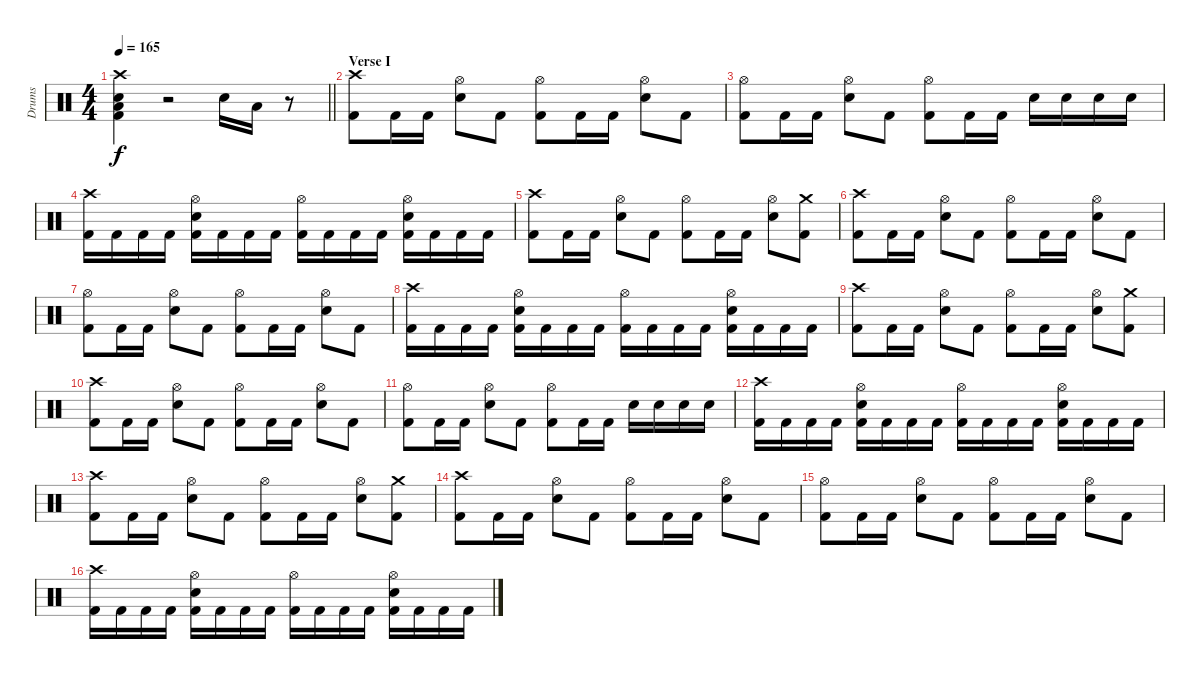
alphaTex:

\track ("Drums" "Drums") {instrument percussion}
\staff {score}
\articulation defaults
\ts (4 4)
\tempo 165
\clef neutral
\barLineRight lightlight
\ks c
("Crash high (hit)" "Snare (hit) 2" "Low Floor Tom (hit)" "Kick (hit) 2").4{dy f} r.2 "Snare (hit) 2".16 "Low Tom (hit)".16 r.8 |
\section ("" "Verse I")
("Crash high (hit)" "Kick (hit) 2").8 "Kick (hit) 2".16 "Kick (hit) 2".16 ("Hi-Hat (open)" "Snare (hit) 2").8 "Kick (hit) 2".8 ("Hi-Hat (open)" "Kick (hit) 2").8 "Kick (hit) 2".16 "Kick (hit) 2".16 ("Hi-Hat (open)" "Snare (hit) 2").8 "Kick (hit) 2".8 |
("Hi-Hat (open)" "Kick (hit) 2").8 "Kick (hit) 2".16 "Kick (hit) 2".16 ("Hi-Hat (open)" "Snare (hit) 2").8 "Kick (hit) 2".8 ("Hi-Hat (open)" "Kick (hit) 2").8 "Kick (hit) 2".16 "Kick (hit) 2".16 "Snare (hit) 2".16 "Snare (hit) 2".16 "Snare (hit) 2".16 "Snare (hit) 2".16 |
("Crash high (hit)" "Kick (hit) 2").16 "Kick (hit) 2".16 "Kick (hit) 2".16 "Kick (hit) 2".16 ("Hi-Hat (open)" "Snare (hit) 2" "Kick (hit) 2").16 "Kick (hit) 2".16 "Kick (hit) 2".16 "Kick (hit) 2".16 ("Hi-Hat (open)" "Kick (hit) 2").16 "Kick (hit) 2".16 "Kick (hit) 2".16 "Kick (hit) 2".16 ("Hi-Hat (open)" "Snare (hit) 2" "Kick (hit) 2").16 "Kick (hit) 2".16 "Kick (hit) 2".16 "Kick (hit) 2".16 |
("Crash high (hit)" "Kick (hit) 2").8 "Kick (hit) 2".16 "Kick (hit) 2".16 ("Hi-Hat (open)" "Snare (hit) 2").8 "Kick (hit) 2".8 ("Hi-Hat (open)" "Kick (hit) 2").8 "Kick (hit) 2".16 "Kick (hit) 2".16 ("Hi-Hat (open)" "Snare (hit) 2").8 ("Crash medium (hit)" "Kick (hit) 2").8 |
("Crash high (hit)" "Kick (hit) 2").8 "Kick (hit) 2".16 "Kick (hit) 2".16 ("Hi-Hat (open)" "Snare (hit) 2").8 "Kick (hit) 2".8 ("Hi-Hat (open)" "Kick (hit) 2").8 "Kick (hit) 2".16 "Kick (hit) 2".16 ("Hi-Hat (open)" "Snare (hit) 2").8 "Kick (hit) 2".8 |
("Hi-Hat (open)" "Kick (hit) 2").8 "Kick (hit) 2".16 "Kick (hit) 2".16 ("Hi-Hat (open)" "Snare (hit) 2").8 "Kick (hit) 2".8 ("Hi-Hat (open)" "Kick (hit) 2").8 "Kick (hit) 2".16 "Kick (hit) 2".16 ("Hi-Hat (open)" "Snare (hit) 2").8 "Kick (hit) 2".8 |
("Crash high (hit)" "Kick (hit) 2").16 "Kick (hit) 2".16 "Kick (hit) 2".16 "Kick (hit) 2".16 ("Hi-Hat (open)" "Snare (hit) 2" "Kick (hit) 2").16 "Kick (hit) 2".16 "Kick (hit) 2".16 "Kick (hit) 2".16 ("Hi-Hat (open)" "Kick (hit) 2").16 "Kick (hit) 2".16 "Kick (hit) 2".16 "Kick (hit) 2".16 ("Hi-Hat (open)" "Snare (hit) 2" "Kick (hit) 2").16 "Kick (hit) 2".16 "Kick (hit) 2".16 "Kick (hit) 2".16 |
("Crash high (hit)" "Kick (hit) 2").8 "Kick (hit) 2".16 "Kick (hit) 2".16 ("Hi-Hat (open)" "Snare (hit) 2").8 "Kick (hit) 2".8 ("Hi-Hat (open)" "Kick (hit) 2").8 "Kick (hit) 2".16 "Kick (hit) 2".16 ("Hi-Hat (open)" "Snare (hit) 2").8 ("Crash medium (hit)" "Kick (hit) 2").8 |
("Crash high (hit)" "Kick (hit) 2").8 "Kick (hit) 2".16 "Kick (hit) 2".16 ("Hi-Hat (open)" "Snare (hit) 2").8 "Kick (hit) 2".8 ("Hi-Hat (open)" "Kick (hit) 2").8 "Kick (hit) 2".16 "Kick (hit) 2".16 ("Hi-Hat (open)" "Snare (hit) 2").8 "Kick (hit) 2".8 |
("Hi-Hat (open)" "Kick (hit) 2").8 "Kick (hit) 2".16 "Kick (hit) 2".16 ("Hi-Hat (open)" "Snare (hit) 2").8 "Kick (hit) 2".8 ("Hi-Hat (open)" "Kick (hit) 2").8 "Kick (hit) 2".16 "Kick (hit) 2".16 "Snare (hit) 2".16 "Snare (hit) 2".16 "Snare (hit) 2".16 "Snare (hit) 2".16 |
("Crash high (hit)" "Kick (hit) 2").16 "Kick (hit) 2".16 "Kick (hit) 2".16 "Kick (hit) 2".16 ("Hi-Hat (open)" "Snare (hit) 2" "Kick (hit) 2").16 "Kick (hit) 2".16 "Kick (hit) 2".16 "Kick (hit) 2".16 ("Hi-Hat (open)" "Kick (hit) 2").16 "Kick (hit) 2".16 "Kick (hit) 2".16 "Kick (hit) 2".16 ("Hi-Hat (open)" "Snare (hit) 2" "Kick (hit) 2").16 "Kick (hit) 2".16 "Kick (hit) 2".16 "Kick (hit) 2".16 |
("Crash high (hit)" "Kick (hit) 2").8 "Kick (hit) 2".16 "Kick (hit) 2".16 ("Hi-Hat (open)" "Snare (hit) 2").8 "Kick (hit) 2".8 ("Hi-Hat (open)" "Kick (hit) 2").8 "Kick (hit) 2".16 "Kick (hit) 2".16 ("Hi-Hat (open)" "Snare (hit) 2").8 ("Crash medium (hit)" "Kick (hit) 2").8 |
("Crash high (hit)" "Kick (hit) 2").8 "Kick (hit) 2".16 "Kick (hit) 2".16 ("Hi-Hat (open)" "Snare (hit) 2").8 "Kick (hit) 2".8 ("Hi-Hat (open)" "Kick (hit) 2").8 "Kick (hit) 2".16 "Kick (hit) 2".16 ("Hi-Hat (open)" "Snare (hit) 2").8 "Kick (hit) 2".8 |
("Hi-Hat (open)" "Kick (hit) 2").8 "Kick (hit) 2".16 "Kick (hit) 2".16 ("Hi-Hat (open)" "Snare (hit) 2").8 "Kick (hit) 2".8 ("Hi-Hat (open)" "Kick (hit) 2").8 "Kick (hit) 2".16 "Kick (hit) 2".16 ("Hi-Hat (open)" "Snare (hit) 2").8 "Kick (hit) 2".8 |
("Crash high (hit)" "Kick (hit) 2").16 "Kick (hit) 2".16 "Kick (hit) 2".16 "Kick (hit) 2".16 ("Hi-Hat (open)" "Snare (hit) 2" "Kick (hit) 2").16 "Kick (hit) 2".16 "Kick (hit) 2".16 "Kick (hit) 2".16 ("Hi-Hat (open)" "Kick (hit) 2").16 "Kick (hit) 2".16 "Kick (hit) 2".16 "Kick (hit) 2".16 ("Hi-Hat (open)" "Snare (hit) 2" "Kick (hit) 2").16 "Kick (hit) 2".16 "Kick (hit) 2".16 "Kick (hit) 2".16
